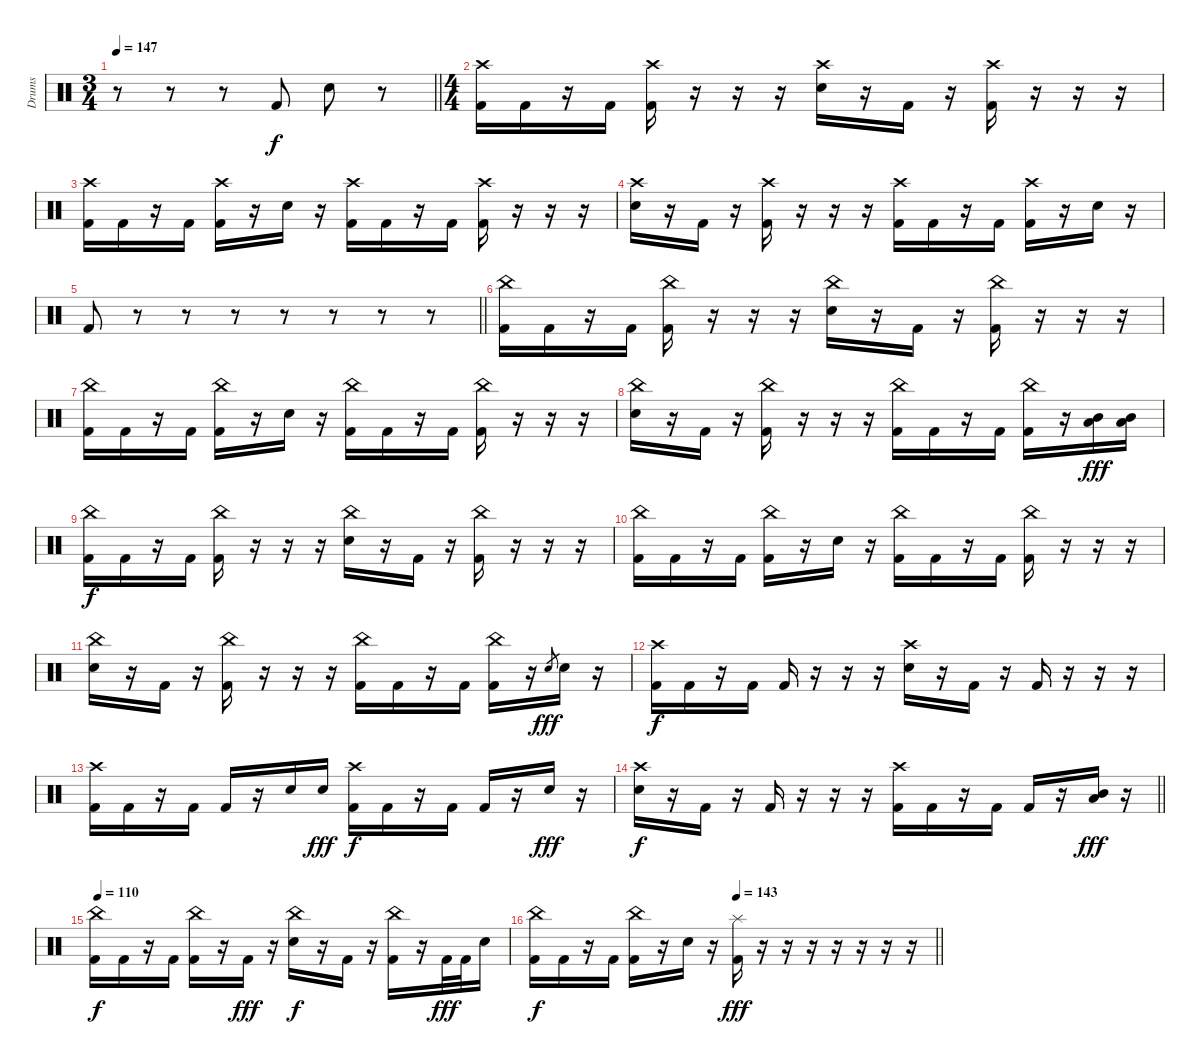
\track ("Drums" "Drums") {instrument percussion}
\staff {score}
\articulation defaults
\ts (3 4)
\tempo 147
\clef neutral
\barLineRight lightlight
\ks c
r.8{dy f} r.8 r.8 "Kick (hit) 2".8 "Electric Snare (hit)".8 r.8 |
\ts (4 4)
\section ("" "")
("Crash high (hit)" "Kick (hit) 2").16 "Kick (hit) 2".16 r.16 "Kick (hit) 2".16 ("Crash high (hit)" "Kick (hit) 2").16 r.16 r.16 r.16 ("Crash high (hit)" "Electric Snare (hit)").16 r.16 "Kick (hit) 2".16 r.16 ("Crash high (hit)" "Kick (hit) 2").16 r.16 r.16 r.16 |
("Crash high (hit)" "Kick (hit) 2").16 "Kick (hit) 2".16 r.16 "Kick (hit) 2".16 ("Crash high (hit)" "Kick (hit) 2").16 r.16 "Electric Snare (hit)".16 r.16 ("Crash high (hit)" "Kick (hit) 2").16 "Kick (hit) 2".16 r.16 "Kick (hit) 2".16 ("Crash high (hit)" "Kick (hit) 2").16 r.16 r.16 r.16 |
("Crash high (hit)" "Electric Snare (hit)").16 r.16 "Kick (hit) 2".16 r.16 ("Crash high (hit)" "Kick (hit) 2").16 r.16 r.16 r.16 ("Crash high (hit)" "Kick (hit) 2").16 "Kick (hit) 2".16 r.16 "Kick (hit) 2".16 ("Crash high (hit)" "Kick (hit) 2").16 r.16 "Electric Snare (hit)".16 r.16 |
\barLineRight lightlight "Kick (hit) 2".8
r.8 r.8 r.8 r.8 r.8 r.8 r.8 |
\section ("" "")
("China (hit)" "Kick (hit) 2").16 "Kick (hit) 2".16 r.16 "Kick (hit) 2".16 ("China (hit)" "Kick (hit) 2").16 r.16 r.16 r.16 ("China (hit)" "Electric Snare (hit)").16 r.16 "Kick (hit) 2".16 r.16 ("China (hit)" "Kick (hit) 2").16 r.16 r.16 r.16 |
("China (hit)" "Kick (hit) 2").16 "Kick (hit) 2".16 r.16 "Kick (hit) 2".16 ("China (hit)" "Kick (hit) 2").16 r.16 "Electric Snare (hit)".16 r.16 ("China (hit)" "Kick (hit) 2").16 "Kick (hit) 2".16 r.16 "Kick (hit) 2".16 ("China (hit)" "Kick (hit) 2").16 r.16 r.16 r.16 |
("China (hit)" "Electric Snare (hit)").16 r.16 "Kick (hit) 2".16 r.16 ("China (hit)" "Kick (hit) 2").16 r.16 r.16 r.16 ("China (hit)" "Kick (hit) 2").16 "Kick (hit) 2".16 r.16 "Kick (hit) 2".16 ("China (hit)" "Kick (hit) 2").16 r.16 ("Mid Tom (hit)" "Low Tom (hit)").16{dy fff} ("Mid Tom (hit)" "Low Tom (hit)").16 |
("China (hit)" "Kick (hit) 2").16{dy f} "Kick (hit) 2".16 r.16 "Kick (hit) 2".16 ("China (hit)" "Kick (hit) 2").16 r.16 r.16 r.16 ("China (hit)" "Electric Snare (hit)").16 r.16 "Kick (hit) 2".16 r.16 ("China (hit)" "Kick (hit) 2").16 r.16 r.16 r.16 |
("China (hit)" "Kick (hit) 2").16 "Kick (hit) 2".16 r.16 "Kick (hit) 2".16 ("China (hit)" "Kick (hit) 2").16 r.16 "Electric Snare (hit)".16 r.16 ("China (hit)" "Kick (hit) 2").16 "Kick (hit) 2".16 r.16 "Kick (hit) 2".16 ("China (hit)" "Kick (hit) 2").16 r.16 r.16 r.16 |
("China (hit)" "Electric Snare (hit)").16 r.16 "Kick (hit) 2".16 r.16 ("China (hit)" "Kick (hit) 2").16 r.16 r.16 r.16 ("China (hit)" "Kick (hit) 2").16 "Kick (hit) 2".16 r.16 "Kick (hit) 2".16 ("China (hit)" "Kick (hit) 2").16 r.16 "Electric Snare (hit)".8{gr dy fff} "Electric Snare (hit)".16 r.16 |
("Crash high (hit)" "Kick (hit) 2").16{dy f} "Kick (hit) 2".16 r.16 "Kick (hit) 2".16 "Kick (hit) 2".16 r.16 r.16 r.16 ("Crash high (hit)" "Electric Snare (hit)").16 r.16 "Kick (hit) 2".16 r.16 "Kick (hit) 2".16 r.16 r.16 r.16 |
("Crash high (hit)" "Kick (hit) 2").16 "Kick (hit) 2".16 r.16 "Kick (hit) 2".16 "Kick (hit) 2".16 r.16 "Electric Snare (hit)".16 "Electric Snare (hit)".16{dy fff} ("Crash high (hit)" "Kick (hit) 2").16{dy f} "Kick (hit) 2".16 r.16 "Kick (hit) 2".16 "Kick (hit) 2".16 r.16 "Electric Snare (hit)".16{dy fff} r.16 |
\barLineRight lightlight
("Crash high (hit)" "Electric Snare (hit)").16{dy f} r.16 "Kick (hit) 2".16 r.16 "Kick (hit) 2".16 r.16 r.16 r.16 ("Crash high (hit)" "Kick (hit) 2").16 "Kick (hit) 2".16 r.16 "Kick (hit) 2".16 "Kick (hit) 2".16 r.16 ("Mid Tom (hit)" "Low Tom (hit)").16{dy fff} r.16 |
\section ("" "")
\tempo 110
("China (hit)" "Kick (hit) 2").16{dy f} "Kick (hit) 2".16 r.16 "Kick (hit) 2".16 ("China (hit)" "Kick (hit) 2").16 r.16 "Kick (hit) 2".16{dy fff} r.16 ("China (hit)" "Electric Snare (hit)").16{dy f} r.16 "Kick (hit) 2".16 r.16 ("China (hit)" "Kick (hit) 2").16 r.16 "Kick (hit) 2".32{dy fff} "Kick (hit) 2".32 "Electric Snare (hit)".16 |
\tempo (143 0.5)
\barLineRight lightlight
("China (hit)" "Kick (hit) 2").16{dy f} "Kick (hit) 2".16 r.16 "Kick (hit) 2".16 ("China (hit)" "Kick (hit) 2").16 r.16 "Electric Snare (hit)".16 r.16 ("Splash (hit)" "Kick (hit) 2").16{dy fff} r.16 r.16 r.16 r.16 r.16 r.16 r.16
